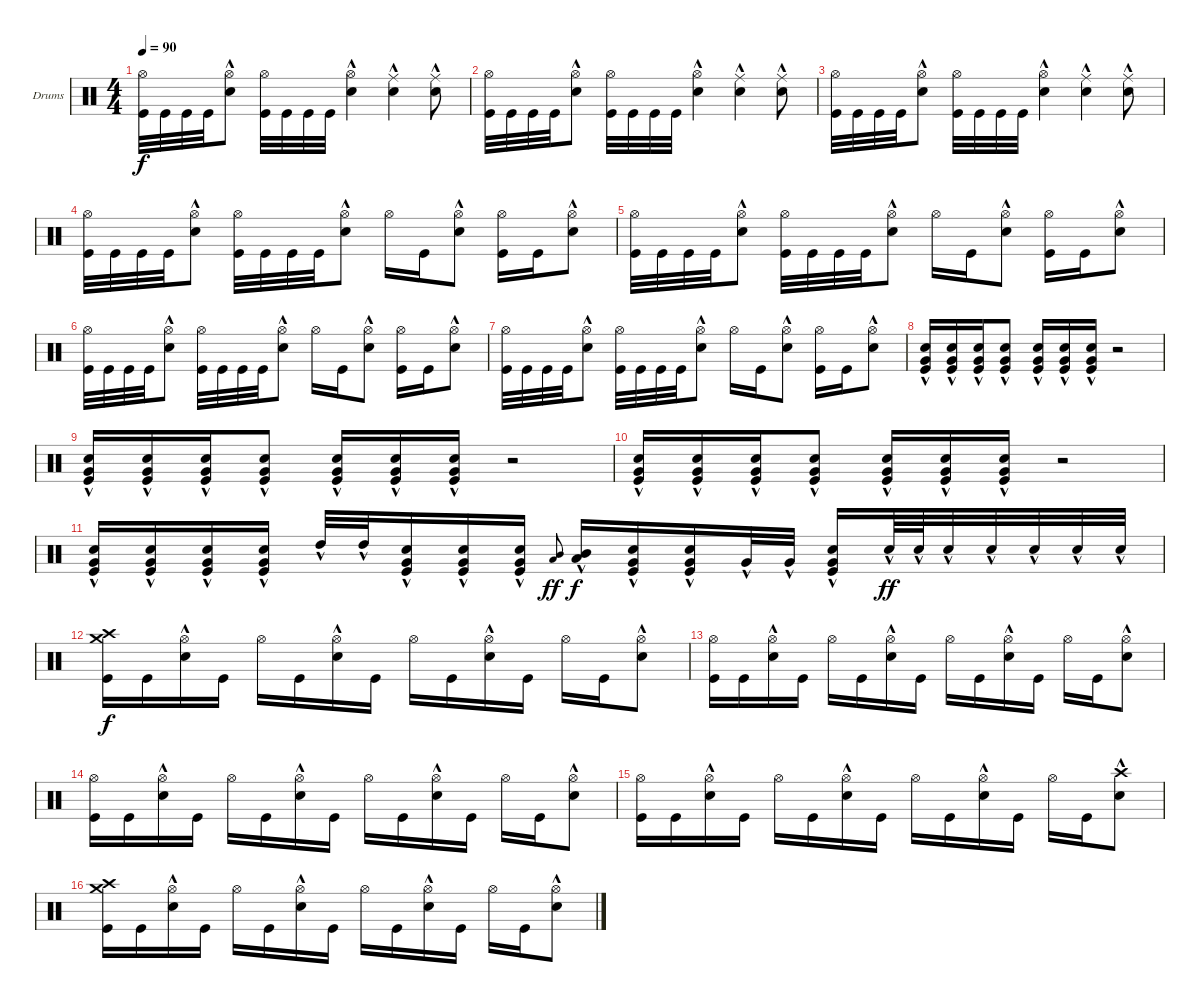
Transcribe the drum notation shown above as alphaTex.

\bracketExtendMode groupsimilarinstruments
\firstSystemTrackNameOrientation horizontal
\otherSystemsTrackNameOrientation horizontal
\track ("Drumkit (Christoph)" "Drums") {instrument percussion}
\staff {score}
\articulation defaults
\ts (4 4)
\tempo 90
\clef neutral
\ks c
("Hi-Hat (open)" "Kick (hit)").32{dy f} "Kick (hit)".32 "Kick (hit)".32 "Kick (hit)".32 ("Hi-Hat (open)" "Snare (hit) 2"{hac}).8 ("Hi-Hat (open)" "Kick (hit)").32 "Kick (hit)".32 "Kick (hit)".32 "Kick (hit)".32 ("Hi-Hat (open)" "Snare (hit) 2"{hac}).4 ("Ride (middle)" "Snare (hit) 2"{hac}).4 ("Ride (middle)" "Snare (hit) 2"{hac}).8 |
("Hi-Hat (open)" "Kick (hit)").32 "Kick (hit)".32 "Kick (hit)".32 "Kick (hit)".32 ("Hi-Hat (open)" "Snare (hit) 2"{hac}).8 ("Hi-Hat (open)" "Kick (hit)").32 "Kick (hit)".32 "Kick (hit)".32 "Kick (hit)".32 ("Hi-Hat (open)" "Snare (hit) 2"{hac}).4 ("Ride (middle)" "Snare (hit) 2"{hac}).4 ("Ride (middle)" "Snare (hit) 2"{hac}).8 |
("Hi-Hat (open)" "Kick (hit)").32 "Kick (hit)".32 "Kick (hit)".32 "Kick (hit)".32 ("Hi-Hat (open)" "Snare (hit) 2"{hac}).8 ("Hi-Hat (open)" "Kick (hit)").32 "Kick (hit)".32 "Kick (hit)".32 "Kick (hit)".32 ("Hi-Hat (open)" "Snare (hit) 2"{hac}).4 ("Ride (middle)" "Snare (hit) 2"{hac}).4 ("Ride (middle)" "Snare (hit) 2"{hac}).8 |
("Hi-Hat (open)" "Kick (hit)").32 "Kick (hit)".32 "Kick (hit)".32 "Kick (hit)".32 ("Hi-Hat (open)" "Snare (hit) 2"{hac}).8 ("Hi-Hat (open)" "Kick (hit)").32 "Kick (hit)".32 "Kick (hit)".32 "Kick (hit)".32 ("Hi-Hat (open)" "Snare (hit) 2"{hac}).8 "Hi-Hat (open)".16 "Kick (hit)".16 ("Hi-Hat (open)" "Snare (hit) 2"{hac}).8 ("Hi-Hat (open)" "Kick (hit)").16 "Kick (hit)".16 ("Hi-Hat (open)" "Snare (hit) 2"{hac}).8 |
("Hi-Hat (open)" "Kick (hit)").32 "Kick (hit)".32 "Kick (hit)".32 "Kick (hit)".32 ("Hi-Hat (open)" "Snare (hit) 2"{hac}).8 ("Hi-Hat (open)" "Kick (hit)").32 "Kick (hit)".32 "Kick (hit)".32 "Kick (hit)".32 ("Hi-Hat (open)" "Snare (hit) 2"{hac}).8 "Hi-Hat (open)".16 "Kick (hit)".16 ("Hi-Hat (open)" "Snare (hit) 2"{hac}).8 ("Hi-Hat (open)" "Kick (hit)").16 "Kick (hit)".16 ("Hi-Hat (open)" "Snare (hit) 2"{hac}).8 |
("Hi-Hat (open)" "Kick (hit)").32 "Kick (hit)".32 "Kick (hit)".32 "Kick (hit)".32 ("Hi-Hat (open)" "Snare (hit) 2"{hac}).8 ("Hi-Hat (open)" "Kick (hit)").32 "Kick (hit)".32 "Kick (hit)".32 "Kick (hit)".32 ("Hi-Hat (open)" "Snare (hit) 2"{hac}).8 "Hi-Hat (open)".16 "Kick (hit)".16 ("Hi-Hat (open)" "Snare (hit) 2"{hac}).8 ("Hi-Hat (open)" "Kick (hit)").16 "Kick (hit)".16 ("Hi-Hat (open)" "Snare (hit) 2"{hac}).8 |
("Hi-Hat (open)" "Kick (hit)").32 "Kick (hit)".32 "Kick (hit)".32 "Kick (hit)".32 ("Hi-Hat (open)" "Snare (hit) 2"{hac}).8 ("Hi-Hat (open)" "Kick (hit)").32 "Kick (hit)".32 "Kick (hit)".32 "Kick (hit)".32 ("Hi-Hat (open)" "Snare (hit) 2"{hac}).8 "Hi-Hat (open)".16 "Kick (hit)".16 ("Hi-Hat (open)" "Snare (hit) 2"{hac}).8 ("Hi-Hat (open)" "Kick (hit)").16 "Kick (hit)".16 ("Hi-Hat (open)" "Snare (hit) 2"{hac}).8 |
("Kick (hit)" "Snare (hit) 2"{hac} "Very Low Tom (hit)"{hac}).16 ("Kick (hit)" "Snare (hit) 2"{hac} "Very Low Tom (hit)"{hac}).16 ("Kick (hit)" "Snare (hit) 2"{hac} "Very Low Tom (hit)"{hac}).16 ("Kick (hit)" "Snare (hit) 2"{hac} "Very Low Tom (hit)"{hac}).8 ("Kick (hit)" "Snare (hit) 2"{hac} "Very Low Tom (hit)"{hac}).16 ("Kick (hit)" "Snare (hit) 2"{hac} "Very Low Tom (hit)"{hac}).16 ("Kick (hit)" "Snare (hit) 2"{hac} "Very Low Tom (hit)"{hac}).16 r.2 |
("Kick (hit)" "Snare (hit) 2"{hac} "Very Low Tom (hit)"{hac}).16 ("Kick (hit)" "Snare (hit) 2"{hac} "Very Low Tom (hit)"{hac}).16 ("Kick (hit)" "Snare (hit) 2"{hac} "Very Low Tom (hit)"{hac}).16 ("Kick (hit)" "Snare (hit) 2"{hac} "Very Low Tom (hit)"{hac}).8 ("Kick (hit)" "Snare (hit) 2"{hac} "Very Low Tom (hit)"{hac}).16 ("Kick (hit)" "Snare (hit) 2"{hac} "Very Low Tom (hit)"{hac}).16 ("Kick (hit)" "Snare (hit) 2"{hac} "Very Low Tom (hit)"{hac}).16 r.2 |
("Kick (hit)" "Snare (hit) 2"{hac} "Very Low Tom (hit)"{hac}).16 ("Kick (hit)" "Snare (hit) 2"{hac} "Very Low Tom (hit)"{hac}).16 ("Kick (hit)" "Snare (hit) 2"{hac} "Very Low Tom (hit)"{hac}).16 ("Kick (hit)" "Snare (hit) 2"{hac} "Very Low Tom (hit)"{hac}).8 ("Kick (hit)" "Snare (hit) 2"{hac} "Very Low Tom (hit)"{hac}).16 ("Kick (hit)" "Snare (hit) 2"{hac} "Very Low Tom (hit)"{hac}).16 ("Kick (hit)" "Snare (hit) 2"{hac} "Very Low Tom (hit)"{hac}).16 r.2 |
("Kick (hit)" "Snare (hit) 2"{hac} "Very Low Tom (hit)"{hac}).16 ("Kick (hit)" "Snare (hit) 2"{hac} "Very Low Tom (hit)"{hac}).16 ("Kick (hit)" "Snare (hit) 2"{hac} "Very Low Tom (hit)"{hac}).16 ("Kick (hit)" "Snare (hit) 2"{hac} "Very Low Tom (hit)"{hac}).16 "High Tom (hit)"{hac}.32 "High Tom (hit)"{hac}.32 ("Kick (hit)" "Snare (hit) 2"{hac} "Very Low Tom (hit)"{hac}).16 ("Kick (hit)" "Snare (hit) 2"{hac} "Very Low Tom (hit)"{hac}).16 ("Kick (hit)" "Snare (hit) 2"{hac} "Very Low Tom (hit)"{hac}).16 ("Mid Tom (hit)" "Low Tom (hit)").8{gr onbeat dy ff} ("Mid Tom (hit)"{hac} "Low Tom (hit)"{hac}).16{dy f} ("Kick (hit)" "Snare (hit) 2"{hac} "Very Low Tom (hit)"{hac}).16 ("Kick (hit)" "Snare (hit) 2"{hac} "Very Low Tom (hit)"{hac}).16 "Very Low Tom (hit)"{hac}.32 "Very Low Tom (hit)"{hac}.32 ("Kick (hit)" "Snare (hit) 2"{hac} "Very Low Tom (hit)"{hac}).16 "Snare (hit) 2"{hac}.64{dy ff} "Snare (hit) 2"{hac}.64 "Snare (hit) 2"{hac}.32 "Snare (hit) 2"{hac}.32 "Snare (hit) 2"{hac}.32 "Snare (hit) 2"{hac}.32 "Snare (hit) 2"{hac}.32 |
("Crash medium (hit)" "Kick (hit)" "Crash high (hit)").16{dy f} "Kick (hit)".16 ("Hi-Hat (open)" "Snare (hit) 2"{hac}).16 "Kick (hit)".16 "Hi-Hat (open)".16 "Kick (hit)".16 ("Hi-Hat (open)" "Snare (hit) 2"{hac}).16 "Kick (hit)".16 "Hi-Hat (open)".16 "Kick (hit)".16 ("Hi-Hat (open)" "Snare (hit) 2"{hac}).16 "Kick (hit)".16 "Hi-Hat (open)".16 "Kick (hit)".16 ("Hi-Hat (open)" "Snare (hit) 2"{hac}).8 |
("Hi-Hat (open)" "Kick (hit)").16 "Kick (hit)".16 ("Hi-Hat (open)" "Snare (hit) 2"{hac}).16 "Kick (hit)".16 "Hi-Hat (open)".16 "Kick (hit)".16 ("Hi-Hat (open)" "Snare (hit) 2"{hac}).16 "Kick (hit)".16 "Hi-Hat (open)".16 "Kick (hit)".16 ("Hi-Hat (open)" "Snare (hit) 2"{hac}).16 "Kick (hit)".16 "Hi-Hat (open)".16 "Kick (hit)".16 ("Hi-Hat (open)" "Snare (hit) 2"{hac}).8 |
("Hi-Hat (open)" "Kick (hit)").16 "Kick (hit)".16 ("Hi-Hat (open)" "Snare (hit) 2"{hac}).16 "Kick (hit)".16 "Hi-Hat (open)".16 "Kick (hit)".16 ("Hi-Hat (open)" "Snare (hit) 2"{hac}).16 "Kick (hit)".16 "Hi-Hat (open)".16 "Kick (hit)".16 ("Hi-Hat (open)" "Snare (hit) 2"{hac}).16 "Kick (hit)".16 "Hi-Hat (open)".16 "Kick (hit)".16 ("Hi-Hat (open)" "Snare (hit) 2"{hac}).8 |
("Hi-Hat (open)" "Kick (hit)").16 "Kick (hit)".16 ("Hi-Hat (open)" "Snare (hit) 2"{hac}).16 "Kick (hit)".16 "Hi-Hat (open)".16 "Kick (hit)".16 ("Hi-Hat (open)" "Snare (hit) 2"{hac}).16 "Kick (hit)".16 "Hi-Hat (open)".16 "Kick (hit)".16 ("Hi-Hat (open)" "Snare (hit) 2"{hac}).16 "Kick (hit)".16 "Hi-Hat (open)".16 "Kick (hit)".16 ("Crash high (hit)" "Snare (hit) 2"{hac}).8 |
("Crash medium (hit)" "Kick (hit)" "Crash high (hit)").16 "Kick (hit)".16 ("Hi-Hat (open)" "Snare (hit) 2"{hac}).16 "Kick (hit)".16 "Hi-Hat (open)".16 "Kick (hit)".16 ("Hi-Hat (open)" "Snare (hit) 2"{hac}).16 "Kick (hit)".16 "Hi-Hat (open)".16 "Kick (hit)".16 ("Hi-Hat (open)" "Snare (hit) 2"{hac}).16 "Kick (hit)".16 "Hi-Hat (open)".16 "Kick (hit)".16 ("Hi-Hat (open)" "Snare (hit) 2"{hac}).8
